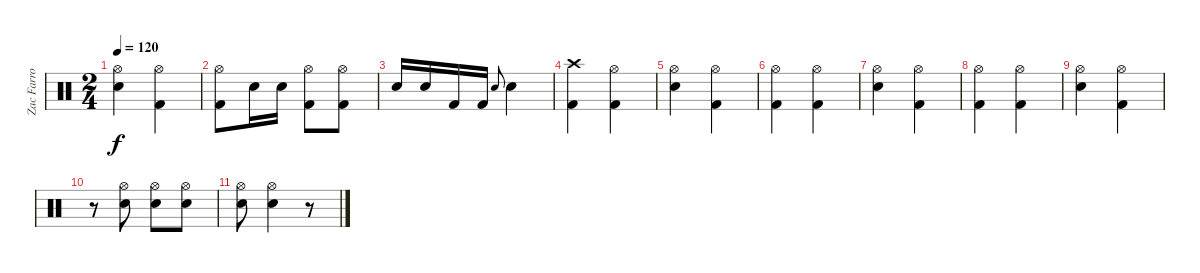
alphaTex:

\track ("Zac Farro" "Zac Farro") {instrument percussion}
\staff {score}
\articulation defaults
\ts (2 4)
\tempo 120
\clef neutral
\ks c
("Electric Snare (hit)" "Hi-Hat (open)").4{dy f} ("Kick (hit) 2" "Hi-Hat (open)").4 |
("Kick (hit) 2" "Hi-Hat (open)").8 "Electric Snare (hit)".16 "Electric Snare (hit)".16 ("Kick (hit) 2" "Hi-Hat (open)").8 ("Hi-Hat (open)" "Kick (hit) 2").8 |
"Electric Snare (hit)".16 "Electric Snare (hit)".16 "Kick (hit) 2".16 "Kick (hit) 2".16 "Electric Snare (hit)".8{gr onbeat} "Electric Snare (hit)".4 |
("Kick (hit) 2" "Crash high (hit)").4 ("Kick (hit) 2" "Hi-Hat (open)").4 |
("Electric Snare (hit)" "Hi-Hat (open)").4 ("Kick (hit) 2" "Hi-Hat (open)").4 |
("Kick (hit) 2" "Hi-Hat (open)").4 ("Kick (hit) 2" "Hi-Hat (open)").4 |
("Electric Snare (hit)" "Hi-Hat (open)").4 ("Kick (hit) 2" "Hi-Hat (open)").4 |
("Kick (hit) 2" "Hi-Hat (open)").4 ("Kick (hit) 2" "Hi-Hat (open)").4 |
("Electric Snare (hit)" "Hi-Hat (open)").4 ("Kick (hit) 2" "Hi-Hat (open)").4 |
r.8 ("Electric Snare (hit)" "Hi-Hat (open)").8 ("Electric Snare (hit)" "Hi-Hat (open)").8 ("Electric Snare (hit)" "Hi-Hat (open)").8 |
("Electric Snare (hit)" "Hi-Hat (open)").8 ("Electric Snare (hit)" "Hi-Hat (open)").4 r.8
